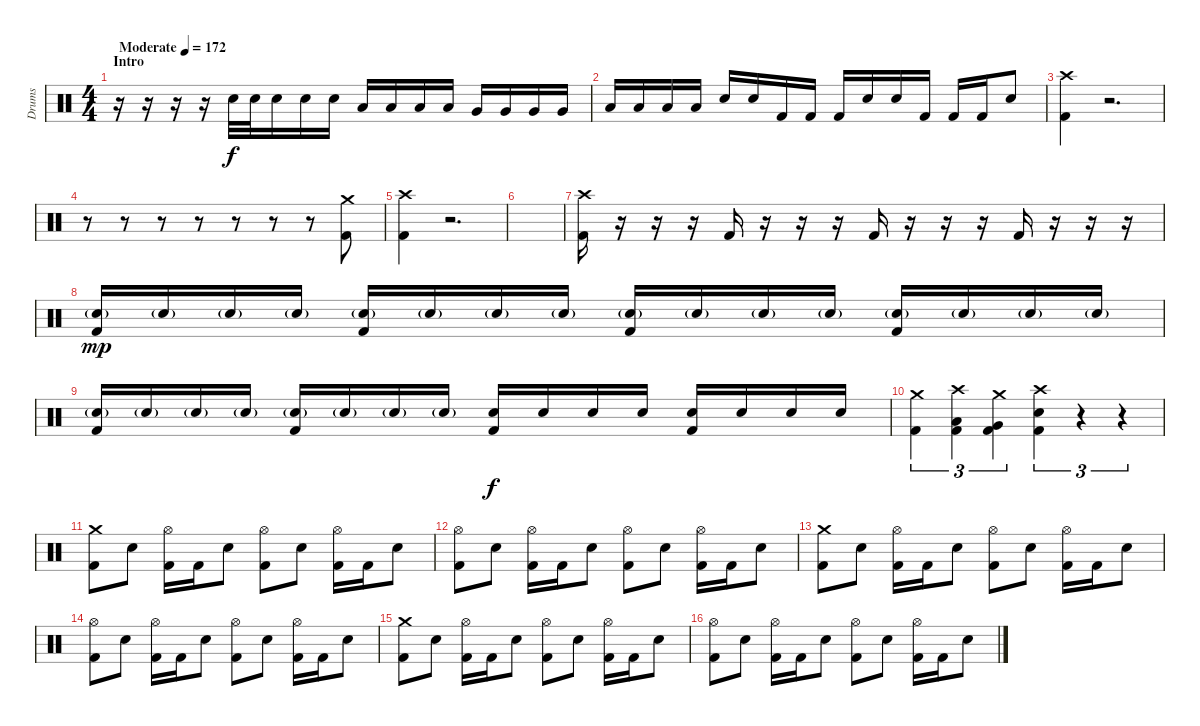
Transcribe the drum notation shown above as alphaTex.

\track ("Drums" "Drums") {instrument percussion}
\staff {score}
\articulation defaults
\ts (4 4)
\section ("" "Intro")
\tempo (172 "Moderate")
\clef neutral
\ks c
r.16{dy f} r.16 r.16 r.16 "Electric Snare (hit)".32{balance 0} "Electric Snare (hit)".32 "Electric Snare (hit)".16 "Electric Snare (hit)".16 "Electric Snare (hit)".16 "Low Tom (hit)".16 "Low Tom (hit)".16 "Low Tom (hit)".16 "Low Tom (hit)".16 "Very Low Tom (hit)".16 "Very Low Tom (hit)".16 "Very Low Tom (hit)".16 "Very Low Tom (hit)".16 |
"Low Floor Tom (hit)".16 "Low Floor Tom (hit)".16 "Low Floor Tom (hit)".16 "Low Floor Tom (hit)".16 "Electric Snare (hit)".16 "Electric Snare (hit)".16 "Kick (hit) 2".16 "Kick (hit) 2".16 "Kick (hit) 2".16 "Electric Snare (hit)".16 "Electric Snare (hit)".16 "Kick (hit) 2".16 "Kick (hit) 2".16 "Kick (hit) 2".16 "Electric Snare (hit)".8 |
("Crash high (hit)" "Kick (hit) 2").4{balance 8} r.2{d volume 0} |
r.8{volume 16} r.8 r.8 r.8 r.8 r.8 r.8 ("Crash medium (hit)" "Kick (hit) 2").8 |
("Crash high (hit)" "Kick (hit) 2").4 r.2{d volume 0} |
|
("Crash high (hit)" "Kick (hit) 2").16 r.16 r.16 r.16 "Kick (hit) 2".16 r.16 r.16 r.16 "Kick (hit) 2".16 r.16 r.16 r.16 "Kick (hit) 2".16 r.16 r.16 r.16 |
("Snare (hit) 2"{g} "Kick (hit) 2").16{dy mp} "Snare (hit) 2"{g}.16 "Snare (hit) 2"{g}.16 "Snare (hit) 2"{g}.16 ("Snare (hit) 2"{g} "Kick (hit) 2").16 "Snare (hit) 2"{g}.16 "Snare (hit) 2"{g}.16 "Snare (hit) 2"{g}.16 ("Snare (hit) 2"{g} "Kick (hit) 2").16 "Snare (hit) 2"{g}.16 "Snare (hit) 2"{g}.16 "Snare (hit) 2"{g}.16 ("Snare (hit) 2"{g} "Kick (hit) 2").16 "Snare (hit) 2"{g}.16 "Snare (hit) 2"{g}.16 "Snare (hit) 2"{g}.16 |
("Snare (hit) 2"{g} "Kick (hit) 2").16 "Snare (hit) 2"{g}.16 "Snare (hit) 2"{g}.16 "Snare (hit) 2"{g}.16 ("Snare (hit) 2"{g} "Kick (hit) 2").16 "Snare (hit) 2"{g}.16 "Snare (hit) 2"{g}.16 "Snare (hit) 2"{g}.16 ("Snare (hit) 2" "Kick (hit) 2").16{dy f} "Snare (hit) 2".16 "Snare (hit) 2".16 "Snare (hit) 2".16 ("Snare (hit) 2" "Kick (hit) 2").16 "Snare (hit) 2".16 "Snare (hit) 2".16 "Snare (hit) 2".16 |
("Crash medium (hit)" "Kick (hit) 2").4{tu (3 2)} ("Crash high (hit)" "Low Tom (hit)" "Kick (hit) 2").4{tu (3 2)} ("Crash medium (hit)" "Very Low Tom (hit)" "Kick (hit) 2").4{tu (3 2)} ("Crash high (hit)" "Electric Snare (hit)" "Kick (hit) 2").4{tu (3 2)} r.4{tu (3 2) volume 0} r.4{tu (3 2)} |
("Crash medium (hit)" "Kick (hit) 2").8{volume 16} "Electric Snare (hit)".8 ("Hi-Hat (open)" "Kick (hit) 2").16 "Kick (hit) 2".16 "Electric Snare (hit)".8 ("Hi-Hat (open)" "Kick (hit) 2").8 "Electric Snare (hit)".8 ("Hi-Hat (open)" "Kick (hit) 2").16 "Kick (hit) 2".16 "Electric Snare (hit)".8 |
("Hi-Hat (open)" "Kick (hit) 2").8 "Electric Snare (hit)".8 ("Hi-Hat (open)" "Kick (hit) 2").16 "Kick (hit) 2".16 "Electric Snare (hit)".8 ("Hi-Hat (open)" "Kick (hit) 2").8 "Electric Snare (hit)".8 ("Hi-Hat (open)" "Kick (hit) 2").16 "Kick (hit) 2".16 "Electric Snare (hit)".8 |
("Crash medium (hit)" "Kick (hit) 2").8 "Electric Snare (hit)".8 ("Hi-Hat (open)" "Kick (hit) 2").16 "Kick (hit) 2".16 "Electric Snare (hit)".8 ("Hi-Hat (open)" "Kick (hit) 2").8 "Electric Snare (hit)".8 ("Hi-Hat (open)" "Kick (hit) 2").16 "Kick (hit) 2".16 "Electric Snare (hit)".8 |
("Hi-Hat (open)" "Kick (hit) 2").8 "Electric Snare (hit)".8 ("Hi-Hat (open)" "Kick (hit) 2").16 "Kick (hit) 2".16 "Electric Snare (hit)".8 ("Hi-Hat (open)" "Kick (hit) 2").8 "Electric Snare (hit)".8 ("Hi-Hat (open)" "Kick (hit) 2").16 "Kick (hit) 2".16 "Electric Snare (hit)".8 |
("Crash medium (hit)" "Kick (hit) 2").8 "Electric Snare (hit)".8 ("Hi-Hat (open)" "Kick (hit) 2").16 "Kick (hit) 2".16 "Electric Snare (hit)".8 ("Hi-Hat (open)" "Kick (hit) 2").8 "Electric Snare (hit)".8 ("Hi-Hat (open)" "Kick (hit) 2").16 "Kick (hit) 2".16 "Electric Snare (hit)".8 |
("Hi-Hat (open)" "Kick (hit) 2").8 "Electric Snare (hit)".8 ("Hi-Hat (open)" "Kick (hit) 2").16 "Kick (hit) 2".16 "Electric Snare (hit)".8 ("Hi-Hat (open)" "Kick (hit) 2").8 "Electric Snare (hit)".8 ("Hi-Hat (open)" "Kick (hit) 2").16 "Kick (hit) 2".16 "Electric Snare (hit)".8
